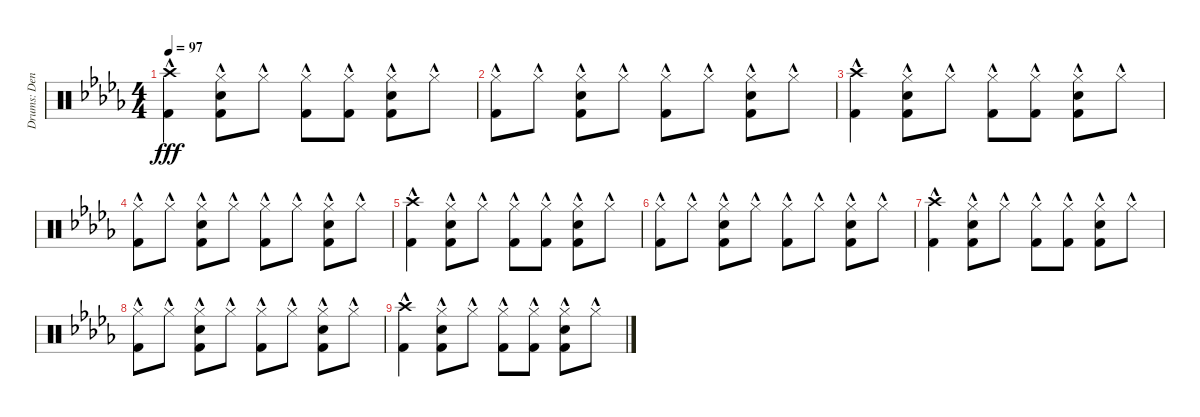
\track ("Drums: Denny" "Drums: Den") {instrument percussion}
\staff {score}
\articulation defaults
\ts (4 4)
\tempo 97
\clef neutral
\ks db
("Crash high (hit)"{hac} "Kick (hit) 2"{hac}).4{dy fff} ("Hi-Hat (closed)"{hac} "Snare (hit) 2"{hac} "Kick (hit) 2"{hac}).8 "Hi-Hat (closed)"{hac}.8 ("Hi-Hat (closed)"{hac} "Kick (hit) 2"{hac}).8 ("Hi-Hat (closed)"{hac} "Kick (hit) 2"{hac}).8 ("Hi-Hat (closed)"{hac} "Snare (hit) 2"{hac} "Kick (hit) 2"{hac}).8 "Hi-Hat (closed)"{hac}.8 |
("Hi-Hat (closed)"{hac} "Kick (hit) 2"{hac}).8 "Hi-Hat (closed)"{hac}.8 ("Hi-Hat (closed)"{hac} "Snare (hit) 2"{hac} "Kick (hit) 2"{hac}).8 "Hi-Hat (closed)"{hac}.8 ("Hi-Hat (closed)"{hac} "Kick (hit) 2"{hac}).8 "Hi-Hat (closed)"{hac}.8 ("Hi-Hat (closed)"{hac} "Snare (hit) 2"{hac} "Kick (hit) 2"{hac}).8 "Hi-Hat (closed)"{hac}.8 |
("Crash high (hit)"{hac} "Kick (hit) 2"{hac}).4 ("Hi-Hat (closed)"{hac} "Snare (hit) 2"{hac} "Kick (hit) 2"{hac}).8 "Hi-Hat (closed)"{hac}.8 ("Hi-Hat (closed)"{hac} "Kick (hit) 2"{hac}).8 ("Hi-Hat (closed)"{hac} "Kick (hit) 2"{hac}).8 ("Hi-Hat (closed)"{hac} "Snare (hit) 2"{hac} "Kick (hit) 2"{hac}).8 "Hi-Hat (closed)"{hac}.8 |
("Hi-Hat (closed)"{hac} "Kick (hit) 2"{hac}).8 "Hi-Hat (closed)"{hac}.8 ("Hi-Hat (closed)"{hac} "Snare (hit) 2"{hac} "Kick (hit) 2"{hac}).8 "Hi-Hat (closed)"{hac}.8 ("Hi-Hat (closed)"{hac} "Kick (hit) 2"{hac}).8 "Hi-Hat (closed)"{hac}.8 ("Hi-Hat (closed)"{hac} "Snare (hit) 2"{hac} "Kick (hit) 2"{hac}).8 "Hi-Hat (closed)"{hac}.8 |
("Crash high (hit)"{hac} "Kick (hit) 2"{hac}).4 ("Hi-Hat (closed)"{hac} "Snare (hit) 2"{hac} "Kick (hit) 2"{hac}).8 "Hi-Hat (closed)"{hac}.8 ("Hi-Hat (closed)"{hac} "Kick (hit) 2"{hac}).8 ("Hi-Hat (closed)"{hac} "Kick (hit) 2"{hac}).8 ("Hi-Hat (closed)"{hac} "Snare (hit) 2"{hac} "Kick (hit) 2"{hac}).8 "Hi-Hat (closed)"{hac}.8 |
("Hi-Hat (closed)"{hac} "Kick (hit) 2"{hac}).8 "Hi-Hat (closed)"{hac}.8 ("Hi-Hat (closed)"{hac} "Snare (hit) 2"{hac} "Kick (hit) 2"{hac}).8 "Hi-Hat (closed)"{hac}.8 ("Hi-Hat (closed)"{hac} "Kick (hit) 2"{hac}).8 "Hi-Hat (closed)"{hac}.8 ("Hi-Hat (closed)"{hac} "Snare (hit) 2"{hac} "Kick (hit) 2"{hac}).8 "Hi-Hat (closed)"{hac}.8 |
("Crash high (hit)"{hac} "Kick (hit) 2"{hac}).4 ("Hi-Hat (closed)"{hac} "Snare (hit) 2"{hac} "Kick (hit) 2"{hac}).8 "Hi-Hat (closed)"{hac}.8 ("Hi-Hat (closed)"{hac} "Kick (hit) 2"{hac}).8 ("Hi-Hat (closed)"{hac} "Kick (hit) 2"{hac}).8 ("Hi-Hat (closed)"{hac} "Snare (hit) 2"{hac} "Kick (hit) 2"{hac}).8 "Hi-Hat (closed)"{hac}.8 |
("Hi-Hat (closed)"{hac} "Kick (hit) 2"{hac}).8 "Hi-Hat (closed)"{hac}.8 ("Hi-Hat (closed)"{hac} "Snare (hit) 2"{hac} "Kick (hit) 2"{hac}).8 "Hi-Hat (closed)"{hac}.8 ("Hi-Hat (closed)"{hac} "Kick (hit) 2"{hac}).8 "Hi-Hat (closed)"{hac}.8 ("Hi-Hat (closed)"{hac} "Snare (hit) 2"{hac} "Kick (hit) 2"{hac}).8 "Hi-Hat (closed)"{hac}.8 |
("Crash high (hit)"{hac} "Kick (hit) 2"{hac}).4 ("Hi-Hat (closed)"{hac} "Snare (hit) 2"{hac} "Kick (hit) 2"{hac}).8 "Hi-Hat (closed)"{hac}.8 ("Hi-Hat (closed)"{hac} "Kick (hit) 2"{hac}).8 ("Hi-Hat (closed)"{hac} "Kick (hit) 2"{hac}).8 ("Hi-Hat (closed)"{hac} "Snare (hit) 2"{hac} "Kick (hit) 2"{hac}).8 "Hi-Hat (closed)"{hac}.8
